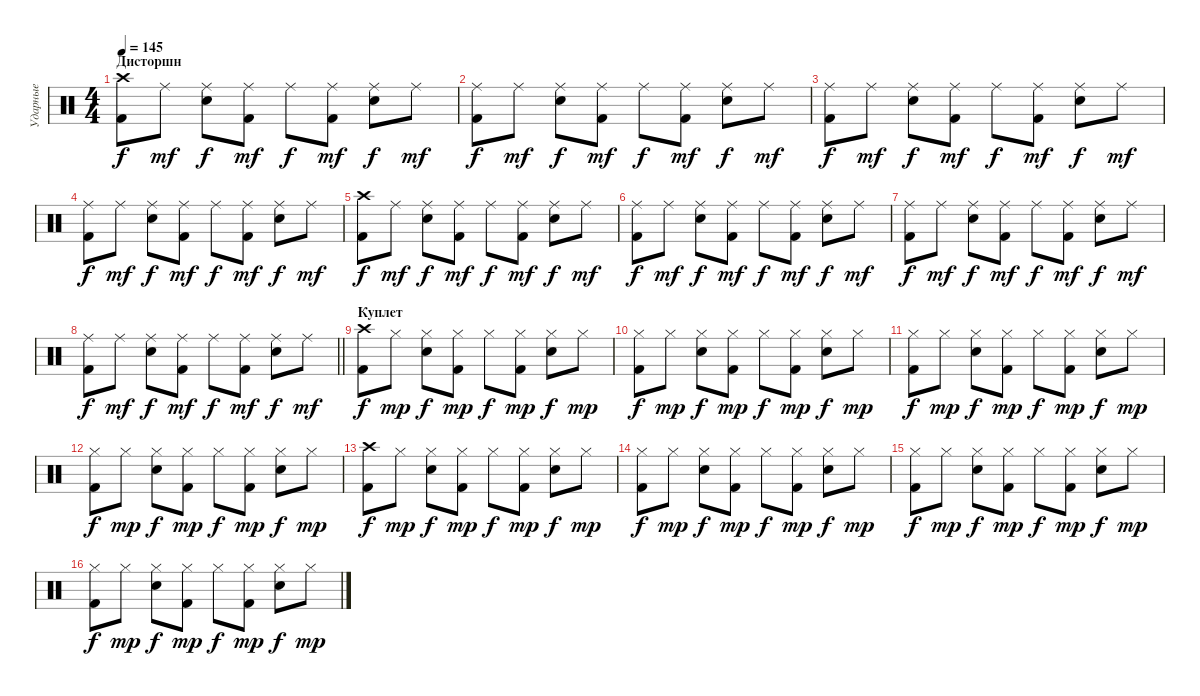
\track ("Ударные" "Ударные") {instrument percussion}
\staff {score}
\articulation defaults
\ts (4 4)
\section ("" "Дисторшн")
\tempo 145
\clef neutral
\ks c
("Crash high (hit)" "Kick (hit) 2").8{dy f} "Ride (middle)".8{dy mf} ("Ride (middle)" "Snare (hit) 2").8{dy f} ("Ride (middle)" "Kick (hit) 2").8{dy mf} "Ride (middle)".8{dy f} ("Ride (middle)" "Kick (hit) 2").8{dy mf} ("Ride (middle)" "Snare (hit) 2").8{dy f} "Ride (middle)".8{dy mf} |
("Ride (middle)" "Kick (hit) 2").8{dy f} "Ride (middle)".8{dy mf} ("Ride (middle)" "Snare (hit) 2").8{dy f} ("Ride (middle)" "Kick (hit) 2").8{dy mf} "Ride (middle)".8{dy f} ("Ride (middle)" "Kick (hit) 2").8{dy mf} ("Ride (middle)" "Snare (hit) 2").8{dy f} "Ride (middle)".8{dy mf} |
("Ride (middle)" "Kick (hit) 2").8{dy f} "Ride (middle)".8{dy mf} ("Ride (middle)" "Snare (hit) 2").8{dy f} ("Ride (middle)" "Kick (hit) 2").8{dy mf} "Ride (middle)".8{dy f} ("Ride (middle)" "Kick (hit) 2").8{dy mf} ("Ride (middle)" "Snare (hit) 2").8{dy f} "Ride (middle)".8{dy mf} |
("Ride (middle)" "Kick (hit) 2").8{dy f} "Ride (middle)".8{dy mf} ("Ride (middle)" "Snare (hit) 2").8{dy f} ("Ride (middle)" "Kick (hit) 2").8{dy mf} "Ride (middle)".8{dy f} ("Ride (middle)" "Kick (hit) 2").8{dy mf} ("Ride (middle)" "Snare (hit) 2").8{dy f} "Ride (middle)".8{dy mf} |
("Crash high (hit)" "Kick (hit) 2").8{dy f} "Ride (middle)".8{dy mf} ("Ride (middle)" "Snare (hit) 2").8{dy f} ("Ride (middle)" "Kick (hit) 2").8{dy mf} "Ride (middle)".8{dy f} ("Ride (middle)" "Kick (hit) 2").8{dy mf} ("Ride (middle)" "Snare (hit) 2").8{dy f} "Ride (middle)".8{dy mf} |
("Ride (middle)" "Kick (hit) 2").8{dy f} "Ride (middle)".8{dy mf} ("Ride (middle)" "Snare (hit) 2").8{dy f} ("Ride (middle)" "Kick (hit) 2").8{dy mf} "Ride (middle)".8{dy f} ("Ride (middle)" "Kick (hit) 2").8{dy mf} ("Ride (middle)" "Snare (hit) 2").8{dy f} "Ride (middle)".8{dy mf} |
("Ride (middle)" "Kick (hit) 2").8{dy f} "Ride (middle)".8{dy mf} ("Ride (middle)" "Snare (hit) 2").8{dy f} ("Ride (middle)" "Kick (hit) 2").8{dy mf} "Ride (middle)".8{dy f} ("Ride (middle)" "Kick (hit) 2").8{dy mf} ("Ride (middle)" "Snare (hit) 2").8{dy f} "Ride (middle)".8{dy mf} |
\barLineRight lightlight
("Ride (middle)" "Kick (hit) 2").8{dy f} "Ride (middle)".8{dy mf} ("Ride (middle)" "Snare (hit) 2").8{dy f} ("Ride (middle)" "Kick (hit) 2").8{dy mf} "Ride (middle)".8{dy f} ("Ride (middle)" "Kick (hit) 2").8{dy mf} ("Ride (middle)" "Snare (hit) 2").8{dy f} "Ride (middle)".8{dy mf} |
\section ("" "Куплет")
("Crash high (hit)" "Kick (hit) 2").8{dy f} "Hi-Hat (closed)".8{dy mp} ("Hi-Hat (closed)" "Snare (hit) 2").8{dy f} ("Hi-Hat (closed)" "Kick (hit) 2").8{dy mp} "Hi-Hat (closed)".8{dy f} ("Hi-Hat (closed)" "Kick (hit) 2").8{dy mp} ("Hi-Hat (closed)" "Snare (hit) 2").8{dy f} "Hi-Hat (closed)".8{dy mp} |
("Hi-Hat (closed)" "Kick (hit) 2").8{dy f} "Hi-Hat (closed)".8{dy mp} ("Hi-Hat (closed)" "Snare (hit) 2").8{dy f} ("Hi-Hat (closed)" "Kick (hit) 2").8{dy mp} "Hi-Hat (closed)".8{dy f} ("Hi-Hat (closed)" "Kick (hit) 2").8{dy mp} ("Hi-Hat (closed)" "Snare (hit) 2").8{dy f} "Hi-Hat (closed)".8{dy mp} |
("Hi-Hat (closed)" "Kick (hit) 2").8{dy f} "Hi-Hat (closed)".8{dy mp} ("Hi-Hat (closed)" "Snare (hit) 2").8{dy f} ("Hi-Hat (closed)" "Kick (hit) 2").8{dy mp} "Hi-Hat (closed)".8{dy f} ("Hi-Hat (closed)" "Kick (hit) 2").8{dy mp} ("Hi-Hat (closed)" "Snare (hit) 2").8{dy f} "Hi-Hat (closed)".8{dy mp} |
("Hi-Hat (closed)" "Kick (hit) 2").8{dy f} "Hi-Hat (closed)".8{dy mp} ("Hi-Hat (closed)" "Snare (hit) 2").8{dy f} ("Hi-Hat (closed)" "Kick (hit) 2").8{dy mp} "Hi-Hat (closed)".8{dy f} ("Hi-Hat (closed)" "Kick (hit) 2").8{dy mp} ("Hi-Hat (closed)" "Snare (hit) 2").8{dy f} "Hi-Hat (closed)".8{dy mp} |
("Crash high (hit)" "Kick (hit) 2").8{dy f} "Hi-Hat (closed)".8{dy mp} ("Hi-Hat (closed)" "Snare (hit) 2").8{dy f} ("Hi-Hat (closed)" "Kick (hit) 2").8{dy mp} "Hi-Hat (closed)".8{dy f} ("Hi-Hat (closed)" "Kick (hit) 2").8{dy mp} ("Hi-Hat (closed)" "Snare (hit) 2").8{dy f} "Hi-Hat (closed)".8{dy mp} |
("Hi-Hat (closed)" "Kick (hit) 2").8{dy f} "Hi-Hat (closed)".8{dy mp} ("Hi-Hat (closed)" "Snare (hit) 2").8{dy f} ("Hi-Hat (closed)" "Kick (hit) 2").8{dy mp} "Hi-Hat (closed)".8{dy f} ("Hi-Hat (closed)" "Kick (hit) 2").8{dy mp} ("Hi-Hat (closed)" "Snare (hit) 2").8{dy f} "Hi-Hat (closed)".8{dy mp} |
("Hi-Hat (closed)" "Kick (hit) 2").8{dy f} "Hi-Hat (closed)".8{dy mp} ("Hi-Hat (closed)" "Snare (hit) 2").8{dy f} ("Hi-Hat (closed)" "Kick (hit) 2").8{dy mp} "Hi-Hat (closed)".8{dy f} ("Hi-Hat (closed)" "Kick (hit) 2").8{dy mp} ("Hi-Hat (closed)" "Snare (hit) 2").8{dy f} "Hi-Hat (closed)".8{dy mp} |
("Hi-Hat (closed)" "Kick (hit) 2").8{dy f} "Hi-Hat (closed)".8{dy mp} ("Hi-Hat (closed)" "Snare (hit) 2").8{dy f} ("Hi-Hat (closed)" "Kick (hit) 2").8{dy mp} "Hi-Hat (closed)".8{dy f} ("Hi-Hat (closed)" "Kick (hit) 2").8{dy mp} ("Hi-Hat (closed)" "Snare (hit) 2").8{dy f} "Hi-Hat (closed)".8{dy mp}
